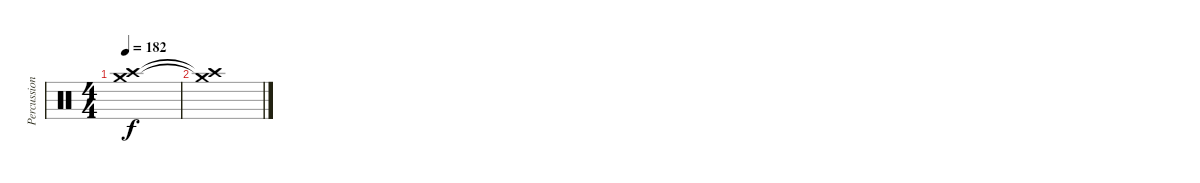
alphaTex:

\track ("Percussion" "Percussion") {instrument percussion}
\staff {score}
\articulation defaults
\ts (4 4)
\tempo 182
\clef neutral
\ks c
("Crash medium (hit)"{t} "Crash high (hit)"{t}).1{dy f} |
("Crash medium (hit)"{t} "Crash high (hit)"{t}).1
